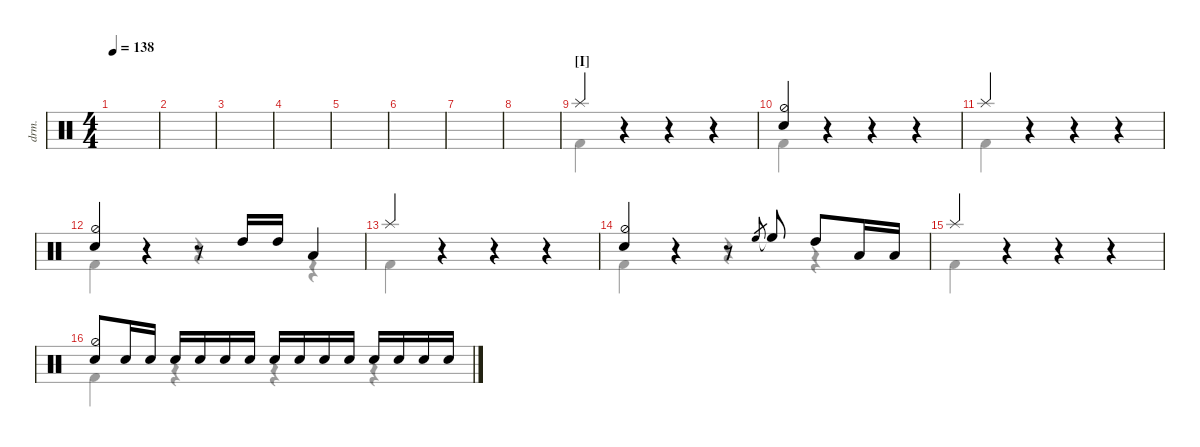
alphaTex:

\defaultSystemsLayout 4
\hideDynamics
\bracketExtendMode nobrackets
\track ("Drumkit" "drm.") {instrument percussion}
\staff {score}
\articulation defaults
\voice
\ts (4 4)
\tempo 138
\clef neutral
\ks c
|
|
|
|
|
|
|
|
\section ("I" "")
"Splash (hit)".4{beam Up} r.4{beam Up} r.4{beam Up} r.4{beam Up} |
("Snare (hit) 2" "Hi-Hat (half)").4{beam Up} r.4{beam Up} r.4{beam Up} r.4{beam Up} |
"Splash (hit)".4{beam Up} r.4{beam Up} r.4{beam Up} r.4{beam Up} |
("Snare (hit) 2" "Hi-Hat (half)").4{beam Up} r.4{beam Up} r.8{beam Up} "High Tom (hit)".16{beam Up} "High Tom (hit)".16{beam Up} "Low Tom (hit)".4{beam Up} |
"Splash (hit)".4{beam Up} r.4{beam Up} r.4{beam Up} r.4{beam Up} |
("Snare (hit) 2" "Hi-Hat (half)").4{beam Up} r.4{beam Up} r.8{beam Up} "High Floor Tom (hit)".8{gr beam Up} "High Floor Tom (hit)"{t}.8{beam Up} "High Tom (hit)".8{beam Up} "Low Tom (hit)".16{beam Up} "Low Tom (hit)".16{beam Up} |
"Splash (hit)".4{beam Up} r.4{beam Up} r.4{beam Up} r.4{beam Up} |
("Snare (hit) 2" "Hi-Hat (half)").8{beam Up} "Snare (hit) 2".16{beam Up} "Snare (hit) 2".16{beam Up} "Snare (hit) 2".16{beam Up} "Snare (hit) 2".16{beam Up} "Snare (hit) 2".16{beam Up} "Snare (hit) 2".16{beam Up} "Snare (hit) 2".16{beam Up} "Snare (hit) 2".16{beam Up} "Snare (hit) 2".16{beam Up} "Snare (hit) 2".16{beam Up} "Snare (hit) 2".16{beam Up} "Snare (hit) 2".16{beam Up} "Snare (hit) 2".16{beam Up} "Snare (hit) 2".16{beam Up}
\voice
\clef neutral
\ottava regular
\simile none
\ks c
|
|
|
|
|
|
|
|
|
|
|
|
|
|
|
\voice
\clef neutral
\ottava regular
\simile none
\ks c
|
|
|
|
|
|
|
|
"Kick (hit) 2".4{beam Down} r.4{beam Down} r.4{beam Down} r.4{beam Down} |
"Kick (hit) 2".4{beam Down} r.4{beam Down} r.4{beam Down} r.4{beam Down} |
"Kick (hit) 2".4{beam Down} r.4{beam Down} r.4{beam Down} r.4{beam Down} |
"Kick (hit) 2".4{beam Down} r.4{beam Down} r.4{beam Down} r.4{beam Down} |
"Kick (hit) 2".4{beam Down} r.4{beam Down} r.4{beam Down} r.4{beam Down} |
"Kick (hit) 2".4{beam Down} r.4{beam Down} r.4{beam Down} r.4{beam Down} |
"Kick (hit) 2".4{beam Down} r.4{beam Down} r.4{beam Down} r.4{beam Down} |
"Kick (hit) 2".4{beam Down} r.4{beam Down} r.4{beam Down} r.4{beam Down}
